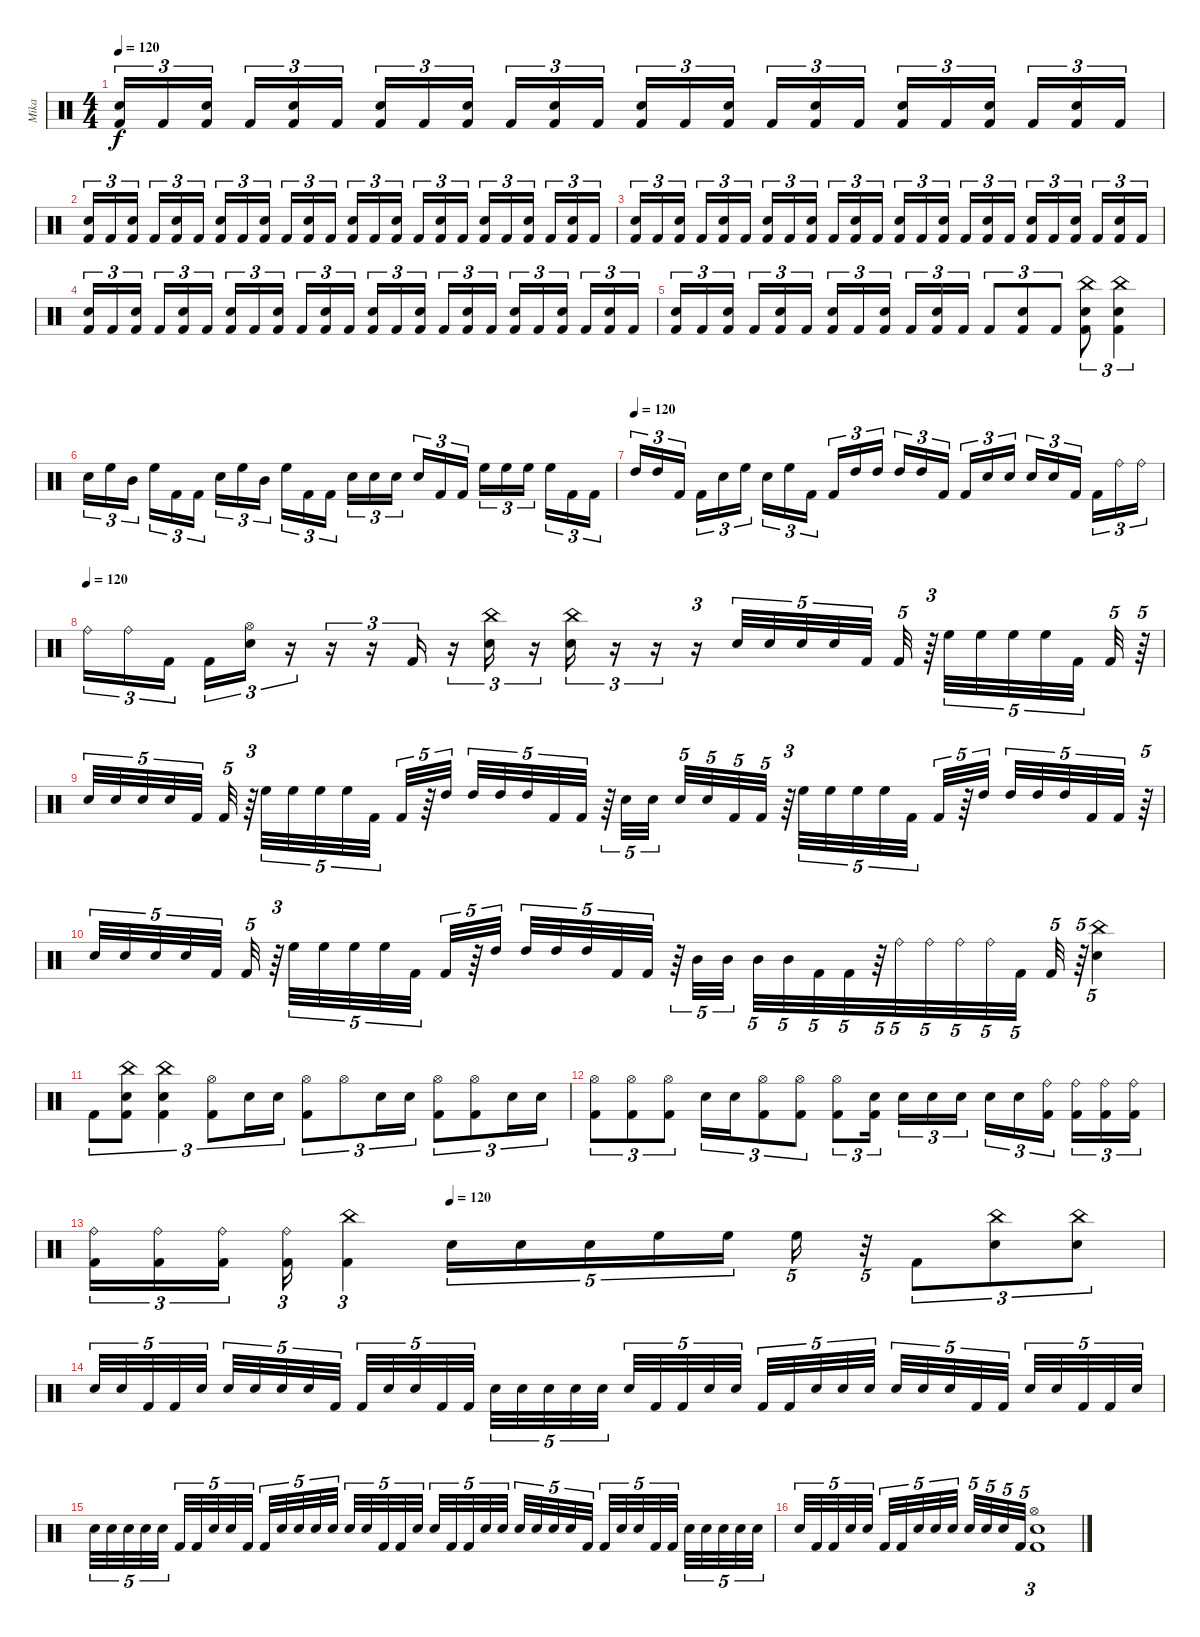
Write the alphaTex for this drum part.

\track ("Mika" "Mika") {instrument percussion}
\staff {score}
\articulation defaults
\ts (4 4)
\tempo 120
\clef neutral
\ks c
("Electric Snare (hit)" "Kick (hit) 2").16{tu (3 2) dy f} "Kick (hit) 2".16{tu (3 2)} ("Electric Snare (hit)" "Kick (hit) 2").16{tu (3 2) beam splitsecondary} "Kick (hit) 2".16{tu (3 2)} ("Electric Snare (hit)" "Kick (hit) 2").16{tu (3 2)} "Kick (hit) 2".16{tu (3 2)} ("Electric Snare (hit)" "Kick (hit) 2").16{tu (3 2)} "Kick (hit) 2".16{tu (3 2)} ("Electric Snare (hit)" "Kick (hit) 2").16{tu (3 2) beam splitsecondary} "Kick (hit) 2".16{tu (3 2)} ("Electric Snare (hit)" "Kick (hit) 2").16{tu (3 2)} "Kick (hit) 2".16{tu (3 2)} ("Electric Snare (hit)" "Kick (hit) 2").16{tu (3 2)} "Kick (hit) 2".16{tu (3 2)} ("Electric Snare (hit)" "Kick (hit) 2").16{tu (3 2) beam splitsecondary} "Kick (hit) 2".16{tu (3 2)} ("Electric Snare (hit)" "Kick (hit) 2").16{tu (3 2)} "Kick (hit) 2".16{tu (3 2)} ("Electric Snare (hit)" "Kick (hit) 2").16{tu (3 2)} "Kick (hit) 2".16{tu (3 2)} ("Electric Snare (hit)" "Kick (hit) 2").16{tu (3 2) beam splitsecondary} "Kick (hit) 2".16{tu (3 2)} ("Electric Snare (hit)" "Kick (hit) 2").16{tu (3 2)} "Kick (hit) 2".16{tu (3 2)} |
("Electric Snare (hit)" "Kick (hit) 2").16{tu (3 2)} "Kick (hit) 2".16{tu (3 2)} ("Electric Snare (hit)" "Kick (hit) 2").16{tu (3 2) beam splitsecondary} "Kick (hit) 2".16{tu (3 2)} ("Electric Snare (hit)" "Kick (hit) 2").16{tu (3 2)} "Kick (hit) 2".16{tu (3 2)} ("Electric Snare (hit)" "Kick (hit) 2").16{tu (3 2)} "Kick (hit) 2".16{tu (3 2)} ("Electric Snare (hit)" "Kick (hit) 2").16{tu (3 2) beam splitsecondary} "Kick (hit) 2".16{tu (3 2)} ("Electric Snare (hit)" "Kick (hit) 2").16{tu (3 2)} "Kick (hit) 2".16{tu (3 2)} ("Electric Snare (hit)" "Kick (hit) 2").16{tu (3 2)} "Kick (hit) 2".16{tu (3 2)} ("Electric Snare (hit)" "Kick (hit) 2").16{tu (3 2) beam splitsecondary} "Kick (hit) 2".16{tu (3 2)} ("Electric Snare (hit)" "Kick (hit) 2").16{tu (3 2)} "Kick (hit) 2".16{tu (3 2)} ("Electric Snare (hit)" "Kick (hit) 2").16{tu (3 2)} "Kick (hit) 2".16{tu (3 2)} ("Electric Snare (hit)" "Kick (hit) 2").16{tu (3 2) beam splitsecondary} "Kick (hit) 2".16{tu (3 2)} ("Electric Snare (hit)" "Kick (hit) 2").16{tu (3 2)} "Kick (hit) 2".16{tu (3 2)} |
("Electric Snare (hit)" "Kick (hit) 2").16{tu (3 2)} "Kick (hit) 2".16{tu (3 2)} ("Electric Snare (hit)" "Kick (hit) 2").16{tu (3 2) beam splitsecondary} "Kick (hit) 2".16{tu (3 2)} ("Electric Snare (hit)" "Kick (hit) 2").16{tu (3 2)} "Kick (hit) 2".16{tu (3 2)} ("Electric Snare (hit)" "Kick (hit) 2").16{tu (3 2)} "Kick (hit) 2".16{tu (3 2)} ("Electric Snare (hit)" "Kick (hit) 2").16{tu (3 2) beam splitsecondary} "Kick (hit) 2".16{tu (3 2)} ("Electric Snare (hit)" "Kick (hit) 2").16{tu (3 2)} "Kick (hit) 2".16{tu (3 2)} ("Electric Snare (hit)" "Kick (hit) 2").16{tu (3 2)} "Kick (hit) 2".16{tu (3 2)} ("Electric Snare (hit)" "Kick (hit) 2").16{tu (3 2) beam splitsecondary} "Kick (hit) 2".16{tu (3 2)} ("Electric Snare (hit)" "Kick (hit) 2").16{tu (3 2)} "Kick (hit) 2".16{tu (3 2)} ("Electric Snare (hit)" "Kick (hit) 2").16{tu (3 2)} "Kick (hit) 2".16{tu (3 2)} ("Electric Snare (hit)" "Kick (hit) 2").16{tu (3 2) beam splitsecondary} "Kick (hit) 2".16{tu (3 2)} ("Electric Snare (hit)" "Kick (hit) 2").16{tu (3 2)} "Kick (hit) 2".16{tu (3 2)} |
("Electric Snare (hit)" "Kick (hit) 2").16{tu (3 2)} "Kick (hit) 2".16{tu (3 2)} ("Electric Snare (hit)" "Kick (hit) 2").16{tu (3 2) beam splitsecondary} "Kick (hit) 2".16{tu (3 2)} ("Electric Snare (hit)" "Kick (hit) 2").16{tu (3 2)} "Kick (hit) 2".16{tu (3 2)} ("Electric Snare (hit)" "Kick (hit) 2").16{tu (3 2)} "Kick (hit) 2".16{tu (3 2)} ("Electric Snare (hit)" "Kick (hit) 2").16{tu (3 2) beam splitsecondary} "Kick (hit) 2".16{tu (3 2)} ("Electric Snare (hit)" "Kick (hit) 2").16{tu (3 2)} "Kick (hit) 2".16{tu (3 2)} ("Electric Snare (hit)" "Kick (hit) 2").16{tu (3 2)} "Kick (hit) 2".16{tu (3 2)} ("Electric Snare (hit)" "Kick (hit) 2").16{tu (3 2) beam splitsecondary} "Kick (hit) 2".16{tu (3 2)} ("Electric Snare (hit)" "Kick (hit) 2").16{tu (3 2)} "Kick (hit) 2".16{tu (3 2)} ("Electric Snare (hit)" "Kick (hit) 2").16{tu (3 2)} "Kick (hit) 2".16{tu (3 2)} ("Electric Snare (hit)" "Kick (hit) 2").16{tu (3 2) beam splitsecondary} "Kick (hit) 2".16{tu (3 2)} ("Electric Snare (hit)" "Kick (hit) 2").16{tu (3 2)} "Kick (hit) 2".16{tu (3 2)} |
("Electric Snare (hit)" "Kick (hit) 2").16{tu (3 2)} "Kick (hit) 2".16{tu (3 2)} ("Electric Snare (hit)" "Kick (hit) 2").16{tu (3 2) beam splitsecondary} "Kick (hit) 2".16{tu (3 2)} ("Electric Snare (hit)" "Kick (hit) 2").16{tu (3 2)} "Kick (hit) 2".16{tu (3 2)} ("Electric Snare (hit)" "Kick (hit) 2").16{tu (3 2)} "Kick (hit) 2".16{tu (3 2)} ("Electric Snare (hit)" "Kick (hit) 2").16{tu (3 2) beam splitsecondary} "Kick (hit) 2".16{tu (3 2)} ("Electric Snare (hit)" "Kick (hit) 2").16{tu (3 2)} "Kick (hit) 2".16{tu (3 2)} "Kick (hit) 2".8{tu (3 2)} ("Electric Snare (hit)" "Kick (hit) 2").8{tu (3 2)} "Kick (hit) 2".8{tu (3 2)} ("China (hit)" "Electric Snare (hit)" "Kick (hit) 2").8{tu (3 2)} ("China (hit)" "Electric Snare (hit)" "Kick (hit) 2").4{tu (3 2)} |
"Electric Snare (hit)".16{tu (3 2)} "High Floor Tom (hit)".16{tu (3 2)} "Mid Tom (hit)".16{tu (3 2) beam splitsecondary} "High Floor Tom (hit)".16{tu (3 2)} "Kick (hit) 2".16{tu (3 2)} "Kick (hit) 2".16{tu (3 2)} "Electric Snare (hit)".16{tu (3 2)} "High Floor Tom (hit)".16{tu (3 2)} "Mid Tom (hit)".16{tu (3 2) beam splitsecondary} "High Floor Tom (hit)".16{tu (3 2)} "Kick (hit) 2".16{tu (3 2)} "Kick (hit) 2".16{tu (3 2)} "Electric Snare (hit)".16{tu (3 2)} "Electric Snare (hit)".16{tu (3 2)} "Electric Snare (hit)".16{tu (3 2) beam splitsecondary} "Electric Snare (hit)".16{tu (3 2)} "Kick (hit) 2".16{tu (3 2)} "Kick (hit) 2".16{tu (3 2)} "High Floor Tom (hit)".16{tu (3 2)} "High Floor Tom (hit)".16{tu (3 2)} "High Floor Tom (hit)".16{tu (3 2) beam splitsecondary} "High Floor Tom (hit)".16{tu (3 2)} "Kick (hit) 2".16{tu (3 2)} "Kick (hit) 2".16{tu (3 2)} |
\tempo (120)
"High Tom (hit)".16{tu (3 2)} "High Tom (hit)".16{tu (3 2)} "Kick (hit) 2".16{tu (3 2) beam splitsecondary} "Kick (hit) 2".16{tu (3 2)} "Electric Snare (hit)".16{tu (3 2)} "High Floor Tom (hit)".16{tu (3 2)} "Electric Snare (hit)".16{tu (3 2)} "High Floor Tom (hit)".16{tu (3 2)} "Kick (hit) 2".16{tu (3 2) beam splitsecondary} "Kick (hit) 2".16{tu (3 2)} "High Tom (hit)".16{tu (3 2)} "High Tom (hit)".16{tu (3 2)} "High Tom (hit)".16{tu (3 2)} "High Tom (hit)".16{tu (3 2)} "Kick (hit) 2".16{tu (3 2) beam splitsecondary} "Kick (hit) 2".16{tu (3 2)} "Electric Snare (hit)".16{tu (3 2)} "Electric Snare (hit)".16{tu (3 2)} "Electric Snare (hit)".16{tu (3 2)} "Electric Snare (hit)".16{tu (3 2)} "Kick (hit) 2".16{tu (3 2) beam splitsecondary} "Kick (hit) 2".16{tu (3 2)} "Ride (bell)".16{tu (3 2)} "Ride (bell)".16{tu (3 2)} |
\tempo (120)
"Ride (bell)".16{tu (3 2)} "Ride (bell)".16{tu (3 2)} "Kick (hit) 2".16{tu (3 2) beam splitsecondary} "Kick (hit) 2".16{tu (3 2)} ("Hi-Hat (open)" "Electric Snare (hit)").16{tu (3 2)} r.16{tu (3 2)} r.16{tu (3 2)} r.16{tu (3 2)} "Kick (hit) 2".16{tu (3 2)} r.16{tu (3 2)} ("China (hit)" "Electric Snare (hit)").16{tu (3 2)} r.16{tu (3 2)} ("China (hit)" "Electric Snare (hit)").16{tu (3 2)} r.16{tu (3 2)} r.16{tu (3 2)} r.16{tu (3 2)} "Electric Snare (hit)".32{tu (5 4)} "Electric Snare (hit)".32{tu (5 4)} "Electric Snare (hit)".32{tu (5 4)} "Electric Snare (hit)".32{tu (5 4)} "Kick (hit) 2".32{tu (5 4)} "Kick (hit) 2".32{tu (5 4)} r.64{tu (3 2)} "High Floor Tom (hit)".32{tu (5 4)} "High Floor Tom (hit)".32{tu (5 4)} "High Floor Tom (hit)".32{tu (5 4)} "High Floor Tom (hit)".32{tu (5 4)} "Kick (hit) 2".32{tu (5 4)} "Kick (hit) 2".32{tu (5 4)} r.64{tu (5 4)} |
"Electric Snare (hit)".32{tu (5 4)} "Electric Snare (hit)".32{tu (5 4)} "Electric Snare (hit)".32{tu (5 4)} "Electric Snare (hit)".32{tu (5 4)} "Kick (hit) 2".32{tu (5 4) beam splitsecondary} "Kick (hit) 2".32{tu (5 4)} r.64{tu (3 2)} "High Floor Tom (hit)".32{tu (5 4)} "High Floor Tom (hit)".32{tu (5 4)} "High Floor Tom (hit)".32{tu (5 4)} "High Floor Tom (hit)".32{tu (5 4)} "Kick (hit) 2".32{tu (5 4)} "Kick (hit) 2".32{tu (5 4)} r.64{tu (5 4)} "High Tom (hit)".32{tu (5 4) beam splitsecondary} "High Tom (hit)".32{tu (5 4)} "High Tom (hit)".32{tu (5 4)} "High Tom (hit)".32{tu (5 4)} "Kick (hit) 2".32{tu (5 4)} "Kick (hit) 2".32{tu (5 4)} r.64{tu (5 4)} "Electric Snare (hit)".32{tu (5 4)} "Electric Snare (hit)".32{tu (5 4) beam splitsecondary} "Electric Snare (hit)".32{tu (5 4)} "Electric Snare (hit)".32{tu (5 4)} "Kick (hit) 2".32{tu (5 4)} "Kick (hit) 2".32{tu (5 4)} r.64{tu (3 2)} "High Floor Tom (hit)".32{tu (5 4)} "High Floor Tom (hit)".32{tu (5 4)} "High Floor Tom (hit)".32{tu (5 4)} "High Floor Tom (hit)".32{tu (5 4)} "Kick (hit) 2".32{tu (5 4)} "Kick (hit) 2".32{tu (5 4)} r.64{tu (5 4)} "High Tom (hit)".32{tu (5 4) beam splitsecondary} "High Tom (hit)".32{tu (5 4)} "High Tom (hit)".32{tu (5 4)} "High Tom (hit)".32{tu (5 4)} "Kick (hit) 2".32{tu (5 4)} "Kick (hit) 2".32{tu (5 4)} r.64{tu (5 4)} |
"Electric Snare (hit)".32{tu (5 4)} "Electric Snare (hit)".32{tu (5 4)} "Electric Snare (hit)".32{tu (5 4)} "Electric Snare (hit)".32{tu (5 4)} "Kick (hit) 2".32{tu (5 4) beam splitsecondary} "Kick (hit) 2".32{tu (5 4)} r.64{tu (3 2)} "High Floor Tom (hit)".32{tu (5 4)} "High Floor Tom (hit)".32{tu (5 4)} "High Floor Tom (hit)".32{tu (5 4)} "High Floor Tom (hit)".32{tu (5 4)} "Kick (hit) 2".32{tu (5 4)} "Kick (hit) 2".32{tu (5 4)} r.64{tu (5 4)} "High Tom (hit)".32{tu (5 4) beam splitsecondary} "High Tom (hit)".32{tu (5 4)} "High Tom (hit)".32{tu (5 4)} "High Tom (hit)".32{tu (5 4)} "Kick (hit) 2".32{tu (5 4)} "Kick (hit) 2".32{tu (5 4)} r.64{tu (5 4)} "Mid Tom (hit)".32{tu (5 4)} "Mid Tom (hit)".32{tu (5 4) beam splitsecondary} "Mid Tom (hit)".32{tu (5 4)} "Mid Tom (hit)".32{tu (5 4)} "Kick (hit) 2".32{tu (5 4)} "Kick (hit) 2".32{tu (5 4)} r.64{tu (5 4)} "Ride (bell)".32{tu (5 4)} "Ride (bell)".32{tu (5 4)} "Ride (bell)".32{tu (5 4)} "Ride (bell)".32{tu (5 4)} "Kick (hit) 2".32{tu (5 4)} "Kick (hit) 2".32{tu (5 4)} r.64{tu (5 4)} ("China (hit)" "Electric Snare (hit)").4{tu (5 4)} |
"Kick (hit) 2".8{tu (3 2)} ("China (hit)" "Electric Snare (hit)" "Kick (hit) 2").8{tu (3 2)} ("China (hit)" "Electric Snare (hit)" "Kick (hit) 2").4{tu (3 2)} ("Hi-Hat (open)" "Kick (hit) 2").8{tu (3 2)} "Electric Snare (hit)".16{tu (3 2)} "Electric Snare (hit)".16{tu (3 2)} ("Hi-Hat (open)" "Kick (hit) 2").8{tu (3 2)} "Hi-Hat (open)".8{tu (3 2)} "Electric Snare (hit)".16{tu (3 2)} "Electric Snare (hit)".16{tu (3 2)} ("Hi-Hat (open)" "Kick (hit) 2").8{tu (3 2)} ("Hi-Hat (open)" "Kick (hit) 2").8{tu (3 2)} "Electric Snare (hit)".16{tu (3 2)} "Electric Snare (hit)".16{tu (3 2)} |
("Hi-Hat (open)" "Kick (hit) 2").8{tu (3 2)} ("Hi-Hat (open)" "Kick (hit) 2").8{tu (3 2)} ("Hi-Hat (open)" "Kick (hit) 2").8{tu (3 2)} "Electric Snare (hit)".16{tu (3 2)} "Electric Snare (hit)".16{tu (3 2)} ("Hi-Hat (open)" "Kick (hit) 2").8{tu (3 2)} ("Hi-Hat (open)" "Kick (hit) 2").8{tu (3 2)} ("Hi-Hat (open)" "Kick (hit) 2").8{tu (3 2)} ("Electric Snare (hit)" "Kick (hit) 2").16{tu (3 2) beam splitsecondary} "Electric Snare (hit)".16{tu (3 2)} "Electric Snare (hit)".16{tu (3 2)} "Electric Snare (hit)".16{tu (3 2)} "Electric Snare (hit)".16{tu (3 2)} "Electric Snare (hit)".16{tu (3 2)} ("Ride (bell)" "Kick (hit) 2").16{tu (3 2) beam splitsecondary} ("Ride (bell)" "Kick (hit) 2").16{tu (3 2)} ("Ride (bell)" "Kick (hit) 2").16{tu (3 2)} ("Ride (bell)" "Kick (hit) 2").16{tu (3 2)} |
\tempo (120 0.3333333333333333)
("Ride (bell)" "Kick (hit) 2").16{tu (3 2)} ("Ride (bell)" "Kick (hit) 2").16{tu (3 2)} ("Ride (bell)" "Kick (hit) 2").16{tu (3 2) beam splitsecondary} ("Ride (bell)" "Kick (hit) 2").16{tu (3 2)} ("China (hit)" "Kick (hit) 2").4{tu (3 2)} "Electric Snare (hit)".16{tu (5 4)} "Electric Snare (hit)".16{tu (5 4)} "Electric Snare (hit)".16{tu (5 4)} "High Floor Tom (hit)".16{tu (5 4)} "High Floor Tom (hit)".16{tu (5 4)} "High Floor Tom (hit)".16{tu (5 4)} r.32{tu (5 4)} "Kick (hit) 2".8{tu (3 2)} ("China (hit)" "Electric Snare (hit)").8{tu (3 2)} ("China (hit)" "Electric Snare (hit)").8{tu (3 2)} |
"Electric Snare (hit)".32{tu (5 4)} "Electric Snare (hit)".32{tu (5 4)} "Kick (hit) 2".32{tu (5 4)} "Kick (hit) 2".32{tu (5 4)} "Electric Snare (hit)".32{tu (5 4) beam splitsecondary} "Electric Snare (hit)".32{tu (5 4)} "Electric Snare (hit)".32{tu (5 4)} "Electric Snare (hit)".32{tu (5 4)} "Electric Snare (hit)".32{tu (5 4)} "Kick (hit) 2".32{tu (5 4)} "Kick (hit) 2".32{tu (5 4)} "Electric Snare (hit)".32{tu (5 4)} "Electric Snare (hit)".32{tu (5 4)} "Kick (hit) 2".32{tu (5 4)} "Kick (hit) 2".32{tu (5 4) beam splitsecondary} "Electric Snare (hit)".32{tu (5 4)} "Electric Snare (hit)".32{tu (5 4)} "Electric Snare (hit)".32{tu (5 4)} "Electric Snare (hit)".32{tu (5 4)} "Electric Snare (hit)".32{tu (5 4)} "Electric Snare (hit)".32{tu (5 4)} "Kick (hit) 2".32{tu (5 4)} "Kick (hit) 2".32{tu (5 4)} "Electric Snare (hit)".32{tu (5 4)} "Electric Snare (hit)".32{tu (5 4) beam splitsecondary} "Kick (hit) 2".32{tu (5 4)} "Kick (hit) 2".32{tu (5 4)} "Electric Snare (hit)".32{tu (5 4)} "Electric Snare (hit)".32{tu (5 4)} "Electric Snare (hit)".32{tu (5 4)} "Electric Snare (hit)".32{tu (5 4)} "Electric Snare (hit)".32{tu (5 4)} "Electric Snare (hit)".32{tu (5 4)} "Kick (hit) 2".32{tu (5 4)} "Kick (hit) 2".32{tu (5 4) beam splitsecondary} "Electric Snare (hit)".32{tu (5 4)} "Electric Snare (hit)".32{tu (5 4)} "Kick (hit) 2".32{tu (5 4)} "Kick (hit) 2".32{tu (5 4)} "Electric Snare (hit)".32{tu (5 4)} |
"Electric Snare (hit)".32{tu (5 4)} "Electric Snare (hit)".32{tu (5 4)} "Electric Snare (hit)".32{tu (5 4)} "Electric Snare (hit)".32{tu (5 4)} "Electric Snare (hit)".32{tu (5 4) beam splitsecondary} "Kick (hit) 2".32{tu (5 4)} "Kick (hit) 2".32{tu (5 4)} "Electric Snare (hit)".32{tu (5 4)} "Electric Snare (hit)".32{tu (5 4)} "Kick (hit) 2".32{tu (5 4)} "Kick (hit) 2".32{tu (5 4)} "Electric Snare (hit)".32{tu (5 4)} "Electric Snare (hit)".32{tu (5 4)} "Electric Snare (hit)".32{tu (5 4)} "Electric Snare (hit)".32{tu (5 4) beam splitsecondary} "Electric Snare (hit)".32{tu (5 4)} "Electric Snare (hit)".32{tu (5 4)} "Kick (hit) 2".32{tu (5 4)} "Kick (hit) 2".32{tu (5 4)} "Electric Snare (hit)".32{tu (5 4)} "Electric Snare (hit)".32{tu (5 4)} "Kick (hit) 2".32{tu (5 4)} "Kick (hit) 2".32{tu (5 4)} "Electric Snare (hit)".32{tu (5 4)} "Electric Snare (hit)".32{tu (5 4) beam splitsecondary} "Electric Snare (hit)".32{tu (5 4)} "Electric Snare (hit)".32{tu (5 4)} "Electric Snare (hit)".32{tu (5 4)} "Electric Snare (hit)".32{tu (5 4)} "Kick (hit) 2".32{tu (5 4)} "Kick (hit) 2".32{tu (5 4)} "Electric Snare (hit)".32{tu (5 4)} "Electric Snare (hit)".32{tu (5 4)} "Kick (hit) 2".32{tu (5 4)} "Kick (hit) 2".32{tu (5 4) beam splitsecondary} "Electric Snare (hit)".32{tu (5 4)} "Electric Snare (hit)".32{tu (5 4)} "Electric Snare (hit)".32{tu (5 4)} "Electric Snare (hit)".32{tu (5 4)} "Electric Snare (hit)".32{tu (5 4)} |
"Electric Snare (hit)".32{tu (5 4)} "Kick (hit) 2".32{tu (5 4)} "Kick (hit) 2".32{tu (5 4)} "Electric Snare (hit)".32{tu (5 4)} "Electric Snare (hit)".32{tu (5 4) beam splitsecondary} "Kick (hit) 2".32{tu (5 4)} "Kick (hit) 2".32{tu (5 4)} "Electric Snare (hit)".32{tu (5 4)} "Electric Snare (hit)".32{tu (5 4)} "Electric Snare (hit)".32{tu (5 4)} "Electric Snare (hit)".32{tu (5 4)} "Electric Snare (hit)".32{tu (5 4)} "Electric Snare (hit)".32{tu (5 4)} "Kick (hit) 2".32{tu (5 4)} ("Hi-Hat (open)" "Kick (hit) 2" "Electric Snare (hit)").1{tu (3 2)}
